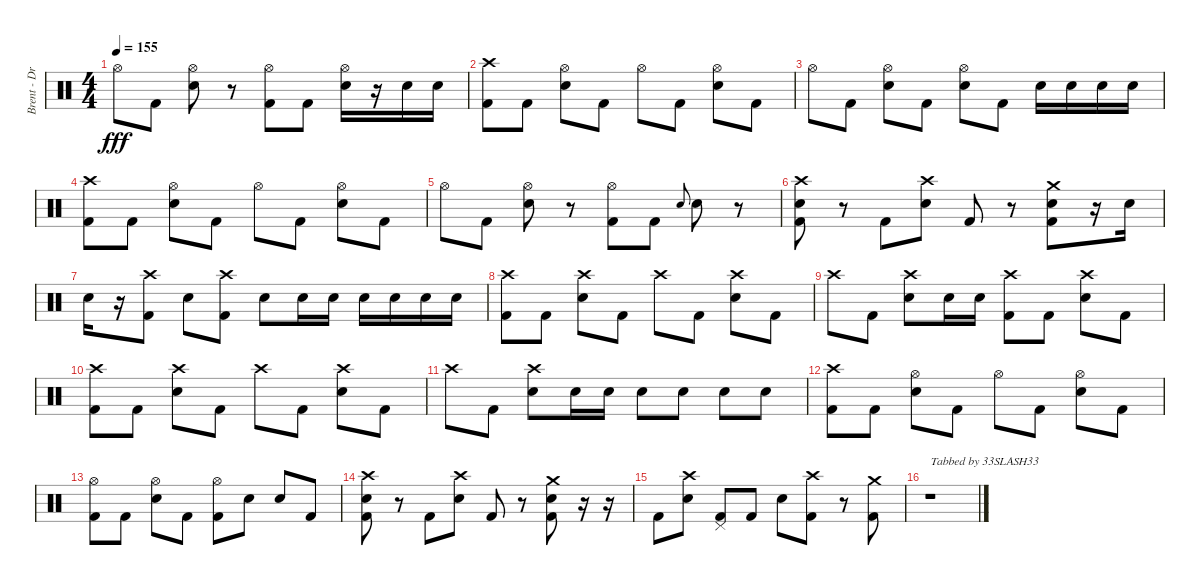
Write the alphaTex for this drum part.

\track ("Brent - Drums" "Brent - Dr") {instrument percussion}
\staff {score}
\articulation defaults
\ts (4 4)
\tempo 155
\clef neutral
\ks c "Hi-Hat (open)".8{dy fff} "Kick (hit) 2".8
("Hi-Hat (open)" "Snare (hit) 2").8 r.8 ("Hi-Hat (open)" "Kick (hit) 2").8 "Kick (hit) 2".8 ("Hi-Hat (open)" "Snare (hit) 2").16 r.16 "Snare (hit) 2".16 "Snare (hit) 2".16 |
("Crash high (hit)" "Kick (hit) 2").8 "Kick (hit) 2".8 ("Hi-Hat (open)" "Snare (hit) 2").8 "Kick (hit) 2".8 "Hi-Hat (open)".8 "Kick (hit) 2".8 ("Hi-Hat (open)" "Snare (hit) 2").8 "Kick (hit) 2".8 |
"Hi-Hat (open)".8 "Kick (hit) 2".8 ("Hi-Hat (open)" "Snare (hit) 2").8 "Kick (hit) 2".8 ("Hi-Hat (open)" "Snare (hit) 2").8 "Kick (hit) 2".8 "Snare (hit) 2".16 "Snare (hit) 2".16 "Snare (hit) 2".16 "Snare (hit) 2".16 |
("Crash high (hit)" "Kick (hit) 2").8 "Kick (hit) 2".8 ("Hi-Hat (open)" "Snare (hit) 2").8 "Kick (hit) 2".8 "Hi-Hat (open)".8 "Kick (hit) 2".8 ("Hi-Hat (open)" "Snare (hit) 2").8 "Kick (hit) 2".8 |
"Hi-Hat (open)".8 "Kick (hit) 2".8 ("Hi-Hat (open)" "Snare (hit) 2").8 r.8 ("Hi-Hat (open)" "Kick (hit) 2").8 "Kick (hit) 2".8 "Snare (hit) 2".8{gr onbeat} "Snare (hit) 2".8 r.8 |
("Crash high (hit)" "Snare (hit) 2" "Kick (hit) 2").8 r.8 "Kick (hit) 2".8 ("Crash high (hit)" "Snare (hit) 2").8 "Kick (hit) 2".8 r.8 ("Crash medium (hit)" "Snare (hit) 2" "Kick (hit) 2").8 r.16 "Snare (hit) 2".16 |
"Snare (hit) 2".16 r.16 ("Crash high (hit)" "Kick (hit) 2").8 "Snare (hit) 2".8 ("Crash high (hit)" "Kick (hit) 2").8 "Snare (hit) 2".8 "Snare (hit) 2".16 "Snare (hit) 2".16 "Snare (hit) 2".16 "Snare (hit) 2".16 "Snare (hit) 2".16 "Snare (hit) 2".16 |
("Crash high (hit)" "Kick (hit) 2").8 "Kick (hit) 2".8 ("Crash high (hit)" "Snare (hit) 2").8 "Kick (hit) 2".8 "Crash high (hit)".8 "Kick (hit) 2".8 ("Crash high (hit)" "Snare (hit) 2").8 "Kick (hit) 2".8 |
"Crash high (hit)".8 "Kick (hit) 2".8 ("Crash high (hit)" "Snare (hit) 2").8 "Snare (hit) 2".16 "Snare (hit) 2".16 ("Crash high (hit)" "Kick (hit) 2").8 "Kick (hit) 2".8 ("Crash high (hit)" "Snare (hit) 2").8 "Kick (hit) 2".8 |
("Crash high (hit)" "Kick (hit) 2").8 "Kick (hit) 2".8 ("Crash high (hit)" "Snare (hit) 2").8 "Kick (hit) 2".8 "Crash high (hit)".8 "Kick (hit) 2".8 ("Crash high (hit)" "Snare (hit) 2").8 "Kick (hit) 2".8 |
"Crash high (hit)".8 "Kick (hit) 2".8 ("Crash high (hit)" "Snare (hit) 2").8 "Snare (hit) 2".16 "Snare (hit) 2".16 "Snare (hit) 2".8 "Snare (hit) 2".8 "Snare (hit) 2".8 "Snare (hit) 2".8 |
("Crash high (hit)" "Kick (hit) 2").8 "Kick (hit) 2".8 ("Hi-Hat (open)" "Snare (hit) 2").8 "Kick (hit) 2".8 "Hi-Hat (open)".8 "Kick (hit) 2".8 ("Hi-Hat (open)" "Snare (hit) 2").8 "Kick (hit) 2".8 |
("Hi-Hat (open)" "Kick (hit) 2").8 "Kick (hit) 2".8 ("Hi-Hat (open)" "Snare (hit) 2").8 "Kick (hit) 2".8 ("Hi-Hat (open)" "Kick (hit) 2").8 "Snare (hit) 2".8 "Snare (hit) 2".8 "Kick (hit) 2".8 |
("Crash high (hit)" "Snare (hit) 2" "Kick (hit) 2").8 r.8 "Kick (hit) 2".8 ("Crash high (hit)" "Snare (hit) 2").8 "Kick (hit) 2".8 r.8 ("Crash medium (hit)" "Snare (hit) 2" "Kick (hit) 2").8 r.16 r.16 |
"Kick (hit) 2".8 ("Crash high (hit)" "Snare (hit) 2").8 ("Pedal Hi-Hat (hit)" "Kick (hit) 2").8 "Kick (hit) 2".8 "Snare (hit) 2".8 ("Crash high (hit)" "Kick (hit) 2").8 r.8 ("Crash medium (hit)" "Kick (hit) 2").8 |
r.1{txt "Tabbed by 33SLASH33"}
